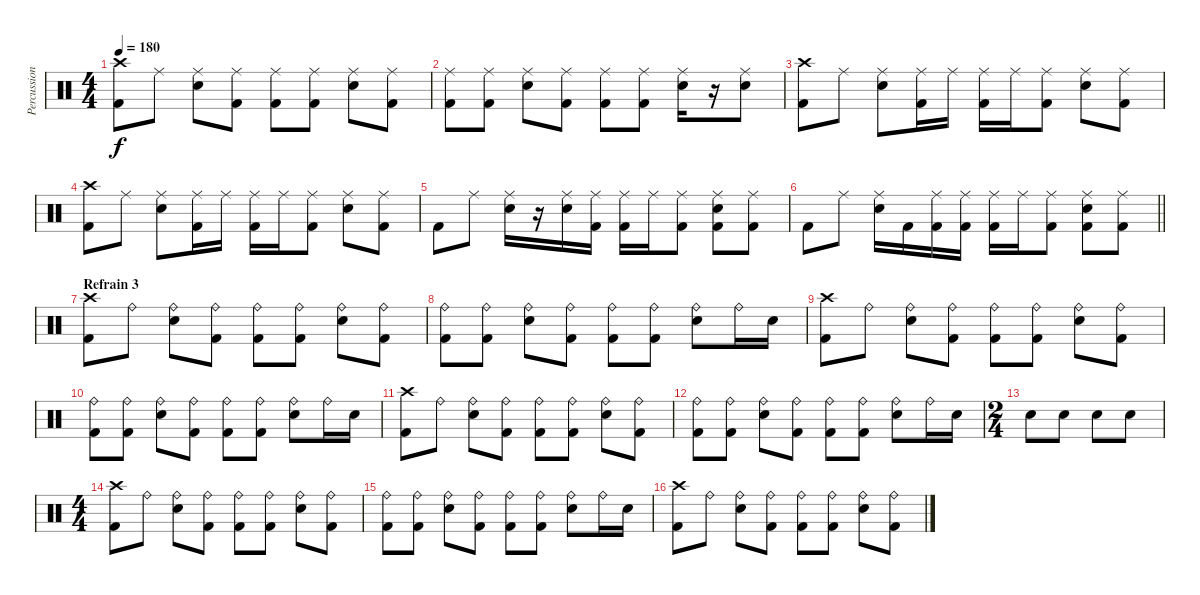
\track ("Percussions" "Percussion") {instrument percussion}
\staff {score}
\articulation defaults
\ts (4 4)
\tempo 180
\clef neutral
\ks c
("Crash high (hit)" "Kick (hit) 2").8{dy f} "Ride (middle)".8 ("Ride (middle)" "Snare (hit) 2").8 ("Ride (middle)" "Kick (hit) 2").8 ("Ride (middle)" "Kick (hit) 2").8 ("Ride (middle)" "Kick (hit) 2").8 ("Ride (middle)" "Snare (hit) 2").8 ("Ride (middle)" "Kick (hit) 2").8 |
("Ride (middle)" "Kick (hit) 2").8 ("Ride (middle)" "Kick (hit) 2").8 ("Ride (middle)" "Snare (hit) 2").8 ("Ride (middle)" "Kick (hit) 2").8 ("Ride (middle)" "Kick (hit) 2").8 ("Ride (middle)" "Kick (hit) 2").8 ("Ride (middle)" "Snare (hit) 2").16 r.16 ("Ride (middle)" "Snare (hit) 2").8 |
("Crash high (hit)" "Kick (hit) 2").8 "Ride (middle)".8 ("Ride (middle)" "Snare (hit) 2").8 ("Ride (middle)" "Kick (hit) 2").16 "Ride (middle)".16 ("Ride (middle)" "Kick (hit) 2").16 "Ride (middle)".16 ("Ride (middle)" "Kick (hit) 2").8 ("Ride (middle)" "Snare (hit) 2").8 ("Ride (middle)" "Kick (hit) 2").8 |
("Crash high (hit)" "Kick (hit) 2").8 "Ride (middle)".8 ("Ride (middle)" "Snare (hit) 2").8 ("Ride (middle)" "Kick (hit) 2").16 "Ride (middle)".16 ("Ride (middle)" "Kick (hit) 2").16 "Ride (middle)".16 ("Ride (middle)" "Kick (hit) 2").8 ("Ride (middle)" "Snare (hit) 2").8 ("Ride (middle)" "Kick (hit) 2").8 |
"Kick (hit) 2".8 "Ride (middle)".8 ("Ride (middle)" "Snare (hit) 2").16 r.16 ("Ride (middle)" "Snare (hit) 2").16 ("Ride (middle)" "Kick (hit) 2").16 ("Ride (middle)" "Kick (hit) 2").16 "Ride (middle)".16 ("Ride (middle)" "Kick (hit) 2").8 ("Ride (middle)" "Snare (hit) 2" "Kick (hit) 2").8 ("Ride (middle)" "Kick (hit) 2").8 |
\barLineRight lightlight "Kick (hit) 2".8 "Ride (middle)".8
("Ride (middle)" "Snare (hit) 2").16 "Kick (hit) 2".16 ("Ride (middle)" "Kick (hit) 2").16 ("Ride (middle)" "Kick (hit) 2").16 ("Ride (middle)" "Kick (hit) 2").16 "Ride (middle)".16 ("Ride (middle)" "Kick (hit) 2").8 ("Ride (middle)" "Snare (hit) 2" "Kick (hit) 2").8 ("Ride (middle)" "Kick (hit) 2").8 |
\section ("" "Refrain 3")
("Crash high (hit)" "Kick (hit) 2").8 "Ride (bell)".8 ("Ride (bell)" "Snare (hit) 2").8 ("Ride (bell)" "Kick (hit) 2").8 ("Ride (bell)" "Kick (hit) 2").8 ("Ride (bell)" "Kick (hit) 2").8 ("Ride (bell)" "Snare (hit) 2").8 ("Ride (bell)" "Kick (hit) 2").8 |
("Ride (bell)" "Kick (hit) 2").8 ("Ride (bell)" "Kick (hit) 2").8 ("Ride (bell)" "Snare (hit) 2").8 ("Ride (bell)" "Kick (hit) 2").8 ("Ride (bell)" "Kick (hit) 2").8 ("Ride (bell)" "Kick (hit) 2").8 ("Ride (bell)" "Snare (hit) 2").8 "Ride (bell)".16 "Snare (hit) 2".16 |
("Crash high (hit)" "Kick (hit) 2").8 "Ride (bell)".8 ("Ride (bell)" "Snare (hit) 2").8 ("Ride (bell)" "Kick (hit) 2").8 ("Ride (bell)" "Kick (hit) 2").8 ("Ride (bell)" "Kick (hit) 2").8 ("Ride (bell)" "Snare (hit) 2").8 ("Ride (bell)" "Kick (hit) 2").8 |
("Ride (bell)" "Kick (hit) 2").8 ("Ride (bell)" "Kick (hit) 2").8 ("Ride (bell)" "Snare (hit) 2").8 ("Ride (bell)" "Kick (hit) 2").8 ("Ride (bell)" "Kick (hit) 2").8 ("Ride (bell)" "Kick (hit) 2").8 ("Ride (bell)" "Snare (hit) 2").8 "Ride (bell)".16 "Snare (hit) 2".16 |
("Crash high (hit)" "Kick (hit) 2").8 "Ride (bell)".8 ("Ride (bell)" "Snare (hit) 2").8 ("Ride (bell)" "Kick (hit) 2").8 ("Ride (bell)" "Kick (hit) 2").8 ("Ride (bell)" "Kick (hit) 2").8 ("Ride (bell)" "Snare (hit) 2").8 ("Ride (bell)" "Kick (hit) 2").8 |
("Ride (bell)" "Kick (hit) 2").8 ("Ride (bell)" "Kick (hit) 2").8 ("Ride (bell)" "Snare (hit) 2").8 ("Ride (bell)" "Kick (hit) 2").8 ("Ride (bell)" "Kick (hit) 2").8 ("Ride (bell)" "Kick (hit) 2").8 ("Ride (bell)" "Snare (hit) 2").8 "Ride (bell)".16 "Snare (hit) 2".16 |
\ts (2 4)
"Snare (hit) 2".8 "Snare (hit) 2".8 "Snare (hit) 2".8 "Snare (hit) 2".8 |
\ts (4 4)
("Crash high (hit)" "Kick (hit) 2").8 "Ride (bell)".8 ("Ride (bell)" "Snare (hit) 2").8 ("Ride (bell)" "Kick (hit) 2").8 ("Ride (bell)" "Kick (hit) 2").8 ("Ride (bell)" "Kick (hit) 2").8 ("Ride (bell)" "Snare (hit) 2").8 ("Ride (bell)" "Kick (hit) 2").8 |
("Ride (bell)" "Kick (hit) 2").8 ("Ride (bell)" "Kick (hit) 2").8 ("Ride (bell)" "Snare (hit) 2").8 ("Ride (bell)" "Kick (hit) 2").8 ("Ride (bell)" "Kick (hit) 2").8 ("Ride (bell)" "Kick (hit) 2").8 ("Ride (bell)" "Snare (hit) 2").8 "Ride (bell)".16 "Snare (hit) 2".16 |
("Crash high (hit)" "Kick (hit) 2").8 "Ride (bell)".8 ("Ride (bell)" "Snare (hit) 2").8 ("Ride (bell)" "Kick (hit) 2").8 ("Ride (bell)" "Kick (hit) 2").8 ("Ride (bell)" "Kick (hit) 2").8 ("Ride (bell)" "Snare (hit) 2").8 ("Ride (bell)" "Kick (hit) 2").8
